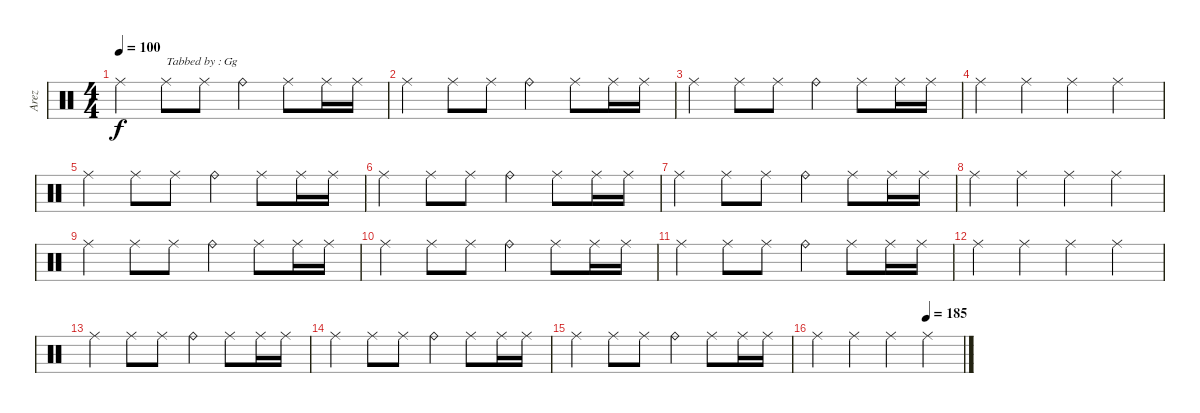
\track ("Arez" "Arez") {instrument percussion}
\staff {score}
\articulation defaults
\ts (4 4)
\tempo 100
\clef neutral
\ks c "Ride (middle)".4{dy f} "Ride (middle)".8{txt "Tabbed by : Gg"} "Ride (middle)".8 "Ride (bell)".4 "Ride (middle)".8 "Ride (middle)".16 "Ride (middle)".16
|
"Ride (middle)".4 "Ride (middle)".8 "Ride (middle)".8 "Ride (bell)".4 "Ride (middle)".8 "Ride (middle)".16 "Ride (middle)".16 |
"Ride (middle)".4 "Ride (middle)".8 "Ride (middle)".8 "Ride (bell)".4 "Ride (middle)".8 "Ride (middle)".16 "Ride (middle)".16 |
"Ride (middle)".4 "Ride (middle)".4 "Ride (middle)".4 "Ride (middle)".4 |
"Ride (middle)".4 "Ride (middle)".8 "Ride (middle)".8 "Ride (bell)".4 "Ride (middle)".8 "Ride (middle)".16 "Ride (middle)".16 |
"Ride (middle)".4 "Ride (middle)".8 "Ride (middle)".8 "Ride (bell)".4 "Ride (middle)".8 "Ride (middle)".16 "Ride (middle)".16 |
"Ride (middle)".4 "Ride (middle)".8 "Ride (middle)".8 "Ride (bell)".4 "Ride (middle)".8 "Ride (middle)".16 "Ride (middle)".16 |
"Ride (middle)".4 "Ride (middle)".4 "Ride (middle)".4 "Ride (middle)".4 |
"Ride (middle)".4 "Ride (middle)".8 "Ride (middle)".8 "Ride (bell)".4 "Ride (middle)".8 "Ride (middle)".16 "Ride (middle)".16 |
"Ride (middle)".4 "Ride (middle)".8 "Ride (middle)".8 "Ride (bell)".4 "Ride (middle)".8 "Ride (middle)".16 "Ride (middle)".16 |
"Ride (middle)".4 "Ride (middle)".8 "Ride (middle)".8 "Ride (bell)".4 "Ride (middle)".8 "Ride (middle)".16 "Ride (middle)".16 |
"Ride (middle)".4 "Ride (middle)".4 "Ride (middle)".4 "Ride (middle)".4 |
"Ride (middle)".4 "Ride (middle)".8 "Ride (middle)".8 "Ride (bell)".4 "Ride (middle)".8 "Ride (middle)".16 "Ride (middle)".16 |
"Ride (middle)".4 "Ride (middle)".8 "Ride (middle)".8 "Ride (bell)".4 "Ride (middle)".8 "Ride (middle)".16 "Ride (middle)".16 |
"Ride (middle)".4 "Ride (middle)".8 "Ride (middle)".8 "Ride (bell)".4 "Ride (middle)".8 "Ride (middle)".16 "Ride (middle)".16 |
\tempo (185 0.75)
"Ride (middle)".4 "Ride (middle)".4 "Ride (middle)".4 "Ride (middle)".4
